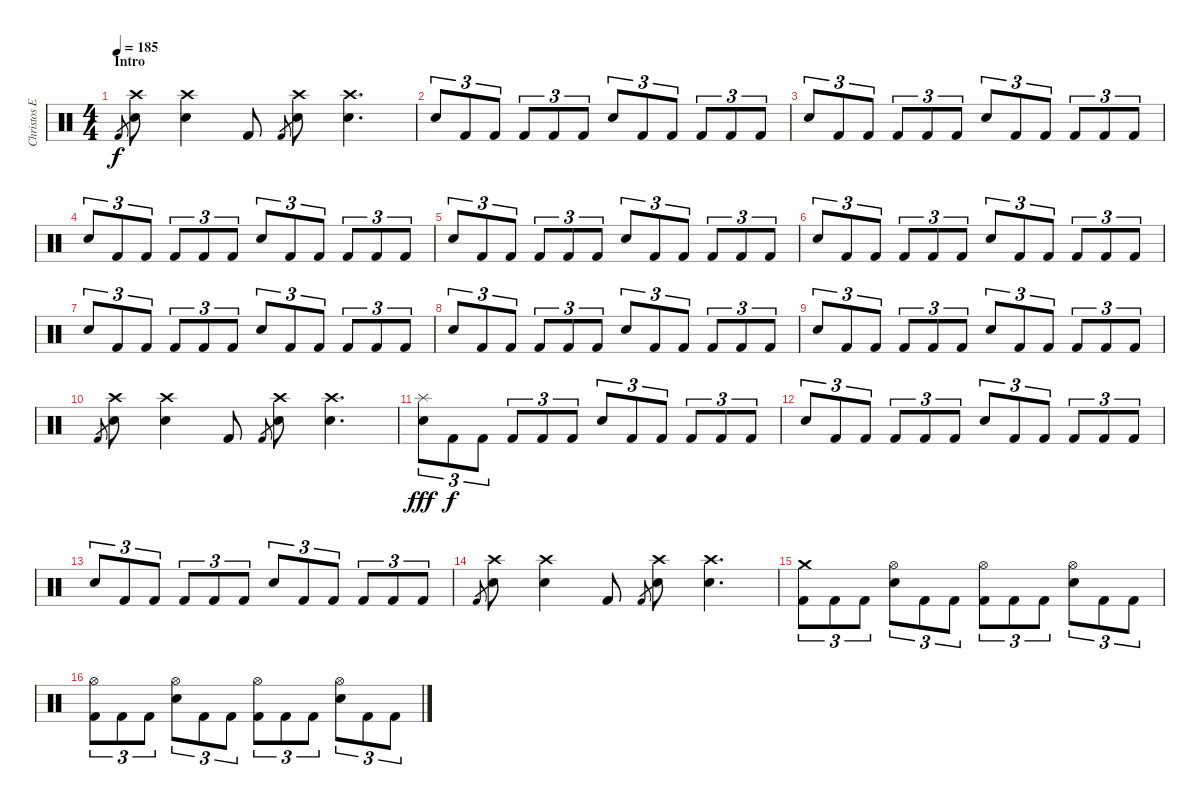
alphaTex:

\track ("Christos Ephitimiadis (drums)" "Christos E") {instrument percussion}
\staff {score}
\articulation defaults
\ts (4 4)
\section ("" "Intro")
\tempo 185
\clef neutral
\ks c "Kick (hit) 2"{h}.8{gr dy f}
("Crash high (hit)" "Snare (hit) 2").8 ("Crash high (hit)" "Snare (hit) 2").4 "Kick (hit) 2".8 "Kick (hit) 2"{h}.8{gr} ("Crash high (hit)" "Snare (hit) 2").8 ("Crash high (hit)" "Snare (hit) 2").4{d} |
"Snare (hit) 2".8{tu (3 2)} "Kick (hit) 2".8{tu (3 2)} "Kick (hit) 2".8{tu (3 2)} "Kick (hit) 2".8{tu (3 2)} "Kick (hit) 2".8{tu (3 2)} "Kick (hit) 2".8{tu (3 2)} "Snare (hit) 2".8{tu (3 2)} "Kick (hit) 2".8{tu (3 2)} "Kick (hit) 2".8{tu (3 2)} "Kick (hit) 2".8{tu (3 2)} "Kick (hit) 2".8{tu (3 2)} "Kick (hit) 2".8{tu (3 2)} |
"Snare (hit) 2".8{tu (3 2)} "Kick (hit) 2".8{tu (3 2)} "Kick (hit) 2".8{tu (3 2)} "Kick (hit) 2".8{tu (3 2)} "Kick (hit) 2".8{tu (3 2)} "Kick (hit) 2".8{tu (3 2)} "Snare (hit) 2".8{tu (3 2)} "Kick (hit) 2".8{tu (3 2)} "Kick (hit) 2".8{tu (3 2)} "Kick (hit) 2".8{tu (3 2)} "Kick (hit) 2".8{tu (3 2)} "Kick (hit) 2".8{tu (3 2)} |
"Snare (hit) 2".8{tu (3 2)} "Kick (hit) 2".8{tu (3 2)} "Kick (hit) 2".8{tu (3 2)} "Kick (hit) 2".8{tu (3 2)} "Kick (hit) 2".8{tu (3 2)} "Kick (hit) 2".8{tu (3 2)} "Snare (hit) 2".8{tu (3 2)} "Kick (hit) 2".8{tu (3 2)} "Kick (hit) 2".8{tu (3 2)} "Kick (hit) 2".8{tu (3 2)} "Kick (hit) 2".8{tu (3 2)} "Kick (hit) 2".8{tu (3 2)} |
"Snare (hit) 2".8{tu (3 2)} "Kick (hit) 2".8{tu (3 2)} "Kick (hit) 2".8{tu (3 2)} "Kick (hit) 2".8{tu (3 2)} "Kick (hit) 2".8{tu (3 2)} "Kick (hit) 2".8{tu (3 2)} "Snare (hit) 2".8{tu (3 2)} "Kick (hit) 2".8{tu (3 2)} "Kick (hit) 2".8{tu (3 2)} "Kick (hit) 2".8{tu (3 2)} "Kick (hit) 2".8{tu (3 2)} "Kick (hit) 2".8{tu (3 2)} |
"Snare (hit) 2".8{tu (3 2)} "Kick (hit) 2".8{tu (3 2)} "Kick (hit) 2".8{tu (3 2)} "Kick (hit) 2".8{tu (3 2)} "Kick (hit) 2".8{tu (3 2)} "Kick (hit) 2".8{tu (3 2)} "Snare (hit) 2".8{tu (3 2)} "Kick (hit) 2".8{tu (3 2)} "Kick (hit) 2".8{tu (3 2)} "Kick (hit) 2".8{tu (3 2)} "Kick (hit) 2".8{tu (3 2)} "Kick (hit) 2".8{tu (3 2)} |
"Snare (hit) 2".8{tu (3 2)} "Kick (hit) 2".8{tu (3 2)} "Kick (hit) 2".8{tu (3 2)} "Kick (hit) 2".8{tu (3 2)} "Kick (hit) 2".8{tu (3 2)} "Kick (hit) 2".8{tu (3 2)} "Snare (hit) 2".8{tu (3 2)} "Kick (hit) 2".8{tu (3 2)} "Kick (hit) 2".8{tu (3 2)} "Kick (hit) 2".8{tu (3 2)} "Kick (hit) 2".8{tu (3 2)} "Kick (hit) 2".8{tu (3 2)} |
"Snare (hit) 2".8{tu (3 2)} "Kick (hit) 2".8{tu (3 2)} "Kick (hit) 2".8{tu (3 2)} "Kick (hit) 2".8{tu (3 2)} "Kick (hit) 2".8{tu (3 2)} "Kick (hit) 2".8{tu (3 2)} "Snare (hit) 2".8{tu (3 2)} "Kick (hit) 2".8{tu (3 2)} "Kick (hit) 2".8{tu (3 2)} "Kick (hit) 2".8{tu (3 2)} "Kick (hit) 2".8{tu (3 2)} "Kick (hit) 2".8{tu (3 2)} |
"Snare (hit) 2".8{tu (3 2)} "Kick (hit) 2".8{tu (3 2)} "Kick (hit) 2".8{tu (3 2)} "Kick (hit) 2".8{tu (3 2)} "Kick (hit) 2".8{tu (3 2)} "Kick (hit) 2".8{tu (3 2)} "Snare (hit) 2".8{tu (3 2)} "Kick (hit) 2".8{tu (3 2)} "Kick (hit) 2".8{tu (3 2)} "Kick (hit) 2".8{tu (3 2)} "Kick (hit) 2".8{tu (3 2)} "Kick (hit) 2".8{tu (3 2)} |
"Kick (hit) 2"{h}.8{gr} ("Crash high (hit)" "Snare (hit) 2").8 ("Crash high (hit)" "Snare (hit) 2").4 "Kick (hit) 2".8 "Kick (hit) 2"{h}.8{gr} ("Crash high (hit)" "Snare (hit) 2").8 ("Crash high (hit)" "Snare (hit) 2").4{d} |
("Splash (hit)" "Snare (hit) 2").8{tu (3 2) dy fff} "Kick (hit) 2".8{tu (3 2) dy f} "Kick (hit) 2".8{tu (3 2)} "Kick (hit) 2".8{tu (3 2)} "Kick (hit) 2".8{tu (3 2)} "Kick (hit) 2".8{tu (3 2)} "Snare (hit) 2".8{tu (3 2)} "Kick (hit) 2".8{tu (3 2)} "Kick (hit) 2".8{tu (3 2)} "Kick (hit) 2".8{tu (3 2)} "Kick (hit) 2".8{tu (3 2)} "Kick (hit) 2".8{tu (3 2)} |
"Snare (hit) 2".8{tu (3 2)} "Kick (hit) 2".8{tu (3 2)} "Kick (hit) 2".8{tu (3 2)} "Kick (hit) 2".8{tu (3 2)} "Kick (hit) 2".8{tu (3 2)} "Kick (hit) 2".8{tu (3 2)} "Snare (hit) 2".8{tu (3 2)} "Kick (hit) 2".8{tu (3 2)} "Kick (hit) 2".8{tu (3 2)} "Kick (hit) 2".8{tu (3 2)} "Kick (hit) 2".8{tu (3 2)} "Kick (hit) 2".8{tu (3 2)} |
"Snare (hit) 2".8{tu (3 2)} "Kick (hit) 2".8{tu (3 2)} "Kick (hit) 2".8{tu (3 2)} "Kick (hit) 2".8{tu (3 2)} "Kick (hit) 2".8{tu (3 2)} "Kick (hit) 2".8{tu (3 2)} "Snare (hit) 2".8{tu (3 2)} "Kick (hit) 2".8{tu (3 2)} "Kick (hit) 2".8{tu (3 2)} "Kick (hit) 2".8{tu (3 2)} "Kick (hit) 2".8{tu (3 2)} "Kick (hit) 2".8{tu (3 2)} |
"Kick (hit) 2"{h}.8{gr} ("Crash high (hit)" "Snare (hit) 2").8 ("Crash high (hit)" "Snare (hit) 2").4 "Kick (hit) 2".8 "Kick (hit) 2"{h}.8{gr} ("Crash high (hit)" "Snare (hit) 2").8 ("Crash high (hit)" "Snare (hit) 2").4{d} |
("Crash medium (hit)" "Kick (hit) 2").8{tu (3 2)} "Kick (hit) 2".8{tu (3 2)} "Kick (hit) 2".8{tu (3 2)} ("Hi-Hat (open)" "Snare (hit) 2").8{tu (3 2)} "Kick (hit) 2".8{tu (3 2)} "Kick (hit) 2".8{tu (3 2)} ("Hi-Hat (open)" "Kick (hit) 2").8{tu (3 2)} "Kick (hit) 2".8{tu (3 2)} "Kick (hit) 2".8{tu (3 2)} ("Hi-Hat (open)" "Snare (hit) 2").8{tu (3 2)} "Kick (hit) 2".8{tu (3 2)} "Kick (hit) 2".8{tu (3 2)} |
("Hi-Hat (open)" "Kick (hit) 2").8{tu (3 2)} "Kick (hit) 2".8{tu (3 2)} "Kick (hit) 2".8{tu (3 2)} ("Hi-Hat (open)" "Snare (hit) 2").8{tu (3 2)} "Kick (hit) 2".8{tu (3 2)} "Kick (hit) 2".8{tu (3 2)} ("Hi-Hat (open)" "Kick (hit) 2").8{tu (3 2)} "Kick (hit) 2".8{tu (3 2)} "Kick (hit) 2".8{tu (3 2)} ("Hi-Hat (open)" "Snare (hit) 2").8{tu (3 2)} "Kick (hit) 2".8{tu (3 2)} "Kick (hit) 2".8{tu (3 2)}
